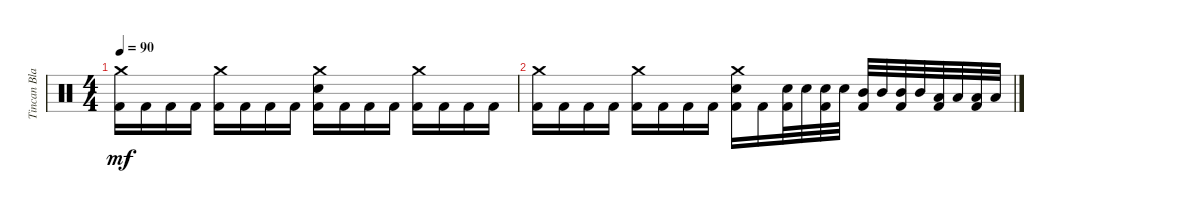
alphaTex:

\track ("Tincan Blaster" "Tincan Bla") {instrument percussion}
\staff {score}
\articulation defaults
\ts (4 4)
\tempo 90
\clef neutral
\ks c
("Crash medium (hit)" "Kick (hit) 2").16{dy mf} "Kick (hit) 2".16 "Kick (hit) 2".16 "Kick (hit) 2".16 ("Crash medium (hit)" "Kick (hit) 2").16 "Kick (hit) 2".16 "Kick (hit) 2".16 "Kick (hit) 2".16 ("Crash medium (hit)" "Electric Snare (hit)" "Kick (hit) 2").16 "Kick (hit) 2".16 "Kick (hit) 2".16 "Kick (hit) 2".16 ("Crash medium (hit)" "Kick (hit) 2").16 "Kick (hit) 2".16 "Kick (hit) 2".16 "Kick (hit) 2".16 |
("Crash medium (hit)" "Kick (hit) 2").16 "Kick (hit) 2".16 "Kick (hit) 2".16 "Kick (hit) 2".16 ("Crash medium (hit)" "Kick (hit) 2").16 "Kick (hit) 2".16 "Kick (hit) 2".16 "Kick (hit) 2".16 ("Crash medium (hit)" "Electric Snare (hit)" "Kick (hit) 2").16 "Kick (hit) 2".16 ("Electric Snare (hit)" "Kick (hit) 2").32 "Electric Snare (hit)".32 ("Electric Snare (hit)" "Kick (hit) 2").32 "Electric Snare (hit)".32 ("Mid Tom (hit)" "Kick (hit) 2").32 "Mid Tom (hit)".32 ("Mid Tom (hit)" "Kick (hit) 2").32 "Mid Tom (hit)".32 ("Low Tom (hit)" "Kick (hit) 2").32 "Low Tom (hit)".32 ("Low Tom (hit)" "Kick (hit) 2").32 "Low Tom (hit)".32
